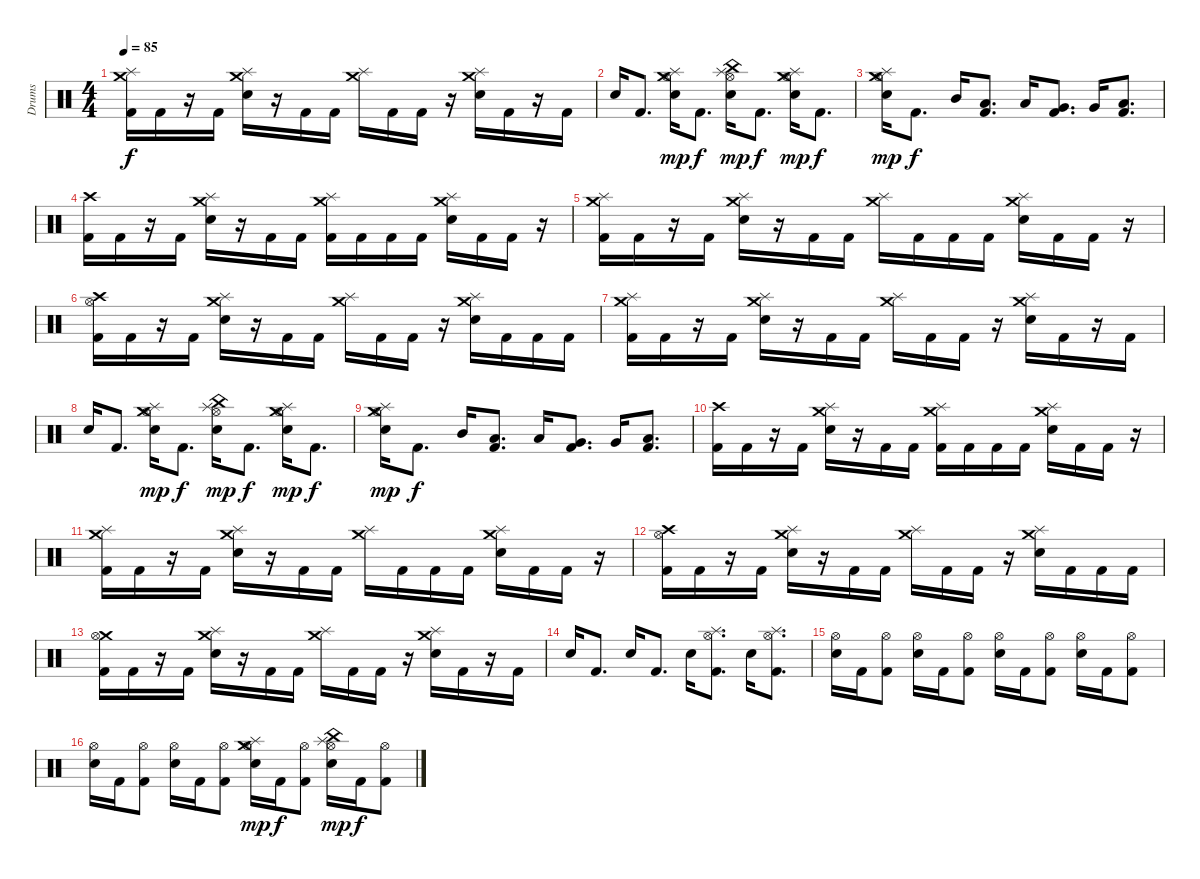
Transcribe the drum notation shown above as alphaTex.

\track ("Drums" "Drums") {instrument percussion}
\staff {score}
\articulation defaults
\ts (4 4)
\tempo 85
\clef neutral
\ks c
("Crash medium (hit)" "Splash (hit)" "Kick (hit) 2").16{dy f} "Kick (hit) 2".16 r.16 "Kick (hit) 2".16 ("Crash medium (hit)" "Splash (hit)" "Electric Snare (hit)").16 r.16 "Kick (hit) 2".16 "Kick (hit) 2".16 ("Crash medium (hit)" "Splash (hit)").16 "Kick (hit) 2".16 "Kick (hit) 2".16 r.16 ("Crash medium (hit)" "Splash (hit)" "Electric Snare (hit)").16 "Kick (hit) 2".16 r.16 "Kick (hit) 2".16 |
"Electric Snare (hit)".16 "Kick (hit) 2".8{d} ("Crash medium (hit)" "Splash (hit)" "Hi-Hat (open)" "Electric Snare (hit)").16{dy mp} "Kick (hit) 2".8{d dy f} ("China (hit)" "Splash (hit)" "Hi-Hat (open)" "Electric Snare (hit)").16{dy mp} "Kick (hit) 2".8{d dy f} ("Crash medium (hit)" "Splash (hit)" "Hi-Hat (open)" "Electric Snare (hit)").16{dy mp} "Kick (hit) 2".8{d dy f} |
("Hi-Hat (open)" "Crash medium (hit)" "Splash (hit)" "Electric Snare (hit)").16{dy mp} "Kick (hit) 2".8{d dy f} "Mid Tom (hit)".16 ("Kick (hit) 2" "Low Tom (hit)").8{d} "Low Tom (hit)".16 ("Kick (hit) 2" "Very Low Tom (hit)").8{d} "Very Low Tom (hit)".16 ("Kick (hit) 2" "Low Floor Tom (hit)").8{d} |
("Crash high (hit)" "Kick (hit) 2").16 "Kick (hit) 2".16 r.16 "Kick (hit) 2".16 ("Crash medium (hit)" "Splash (hit)" "Electric Snare (hit)").16 r.16 "Kick (hit) 2".16 "Kick (hit) 2".16 ("Crash medium (hit)" "Splash (hit)" "Kick (hit) 2").16 "Kick (hit) 2".16 "Kick (hit) 2".16 "Kick (hit) 2".16 ("Crash medium (hit)" "Splash (hit)" "Electric Snare (hit)").16 "Kick (hit) 2".16 "Kick (hit) 2".16 r.16 |
("Crash medium (hit)" "Splash (hit)" "Kick (hit) 2").16 "Kick (hit) 2".16 r.16 "Kick (hit) 2".16 ("Crash medium (hit)" "Splash (hit)" "Electric Snare (hit)").16 r.16 "Kick (hit) 2".16 "Kick (hit) 2".16 ("Crash medium (hit)" "Splash (hit)").16 "Kick (hit) 2".16 "Kick (hit) 2".16 "Kick (hit) 2".16 ("Crash medium (hit)" "Splash (hit)" "Electric Snare (hit)").16 "Kick (hit) 2".16 "Kick (hit) 2".16 r.16 |
("Hi-Hat (open)" "Crash high (hit)" "Kick (hit) 2").16 "Kick (hit) 2".16 r.16 "Kick (hit) 2".16 ("Crash medium (hit)" "Splash (hit)" "Electric Snare (hit)").16 r.16 "Kick (hit) 2".16 "Kick (hit) 2".16 ("Crash medium (hit)" "Splash (hit)").16 "Kick (hit) 2".16 "Kick (hit) 2".16 r.16 ("Crash medium (hit)" "Splash (hit)" "Electric Snare (hit)").16 "Kick (hit) 2".16 "Kick (hit) 2".16 "Kick (hit) 2".16 |
("Crash medium (hit)" "Splash (hit)" "Kick (hit) 2").16 "Kick (hit) 2".16 r.16 "Kick (hit) 2".16 ("Crash medium (hit)" "Splash (hit)" "Electric Snare (hit)").16 r.16 "Kick (hit) 2".16 "Kick (hit) 2".16 ("Crash medium (hit)" "Splash (hit)").16 "Kick (hit) 2".16 "Kick (hit) 2".16 r.16 ("Crash medium (hit)" "Splash (hit)" "Electric Snare (hit)").16 "Kick (hit) 2".16 r.16 "Kick (hit) 2".16 |
"Electric Snare (hit)".16 "Kick (hit) 2".8{d} ("Crash medium (hit)" "Splash (hit)" "Hi-Hat (open)" "Electric Snare (hit)").16{dy mp} "Kick (hit) 2".8{d dy f} ("China (hit)" "Splash (hit)" "Hi-Hat (open)" "Electric Snare (hit)").16{dy mp} "Kick (hit) 2".8{d dy f} ("Crash medium (hit)" "Splash (hit)" "Hi-Hat (open)" "Electric Snare (hit)").16{dy mp} "Kick (hit) 2".8{d dy f} |
("Hi-Hat (open)" "Crash medium (hit)" "Splash (hit)" "Electric Snare (hit)").16{dy mp} "Kick (hit) 2".8{d dy f} "Mid Tom (hit)".16 ("Kick (hit) 2" "Low Tom (hit)").8{d} "Low Tom (hit)".16 ("Kick (hit) 2" "Very Low Tom (hit)").8{d} "Very Low Tom (hit)".16 ("Kick (hit) 2" "Low Floor Tom (hit)").8{d} |
("Crash high (hit)" "Kick (hit) 2").16 "Kick (hit) 2".16 r.16 "Kick (hit) 2".16 ("Crash medium (hit)" "Splash (hit)" "Electric Snare (hit)").16 r.16 "Kick (hit) 2".16 "Kick (hit) 2".16 ("Crash medium (hit)" "Splash (hit)" "Kick (hit) 2").16 "Kick (hit) 2".16 "Kick (hit) 2".16 "Kick (hit) 2".16 ("Crash medium (hit)" "Splash (hit)" "Electric Snare (hit)").16 "Kick (hit) 2".16 "Kick (hit) 2".16 r.16 |
("Crash medium (hit)" "Splash (hit)" "Kick (hit) 2").16 "Kick (hit) 2".16 r.16 "Kick (hit) 2".16 ("Crash medium (hit)" "Splash (hit)" "Electric Snare (hit)").16 r.16 "Kick (hit) 2".16 "Kick (hit) 2".16 ("Crash medium (hit)" "Splash (hit)").16 "Kick (hit) 2".16 "Kick (hit) 2".16 "Kick (hit) 2".16 ("Crash medium (hit)" "Splash (hit)" "Electric Snare (hit)").16 "Kick (hit) 2".16 "Kick (hit) 2".16 r.16 |
("Hi-Hat (open)" "Crash high (hit)" "Kick (hit) 2").16 "Kick (hit) 2".16 r.16 "Kick (hit) 2".16 ("Crash medium (hit)" "Splash (hit)" "Electric Snare (hit)").16 r.16 "Kick (hit) 2".16 "Kick (hit) 2".16 ("Crash medium (hit)" "Splash (hit)").16 "Kick (hit) 2".16 "Kick (hit) 2".16 r.16 ("Crash medium (hit)" "Splash (hit)" "Electric Snare (hit)").16 "Kick (hit) 2".16 "Kick (hit) 2".16 "Kick (hit) 2".16 |
("Crash medium (hit)" "Hi-Hat (open)" "Kick (hit) 2").16 "Kick (hit) 2".16 r.16 "Kick (hit) 2".16 ("Crash medium (hit)" "Splash (hit)" "Electric Snare (hit)").16 r.16 "Kick (hit) 2".16 "Kick (hit) 2".16 ("Crash medium (hit)" "Splash (hit)").16 "Kick (hit) 2".16 "Kick (hit) 2".16 r.16 ("Crash medium (hit)" "Splash (hit)" "Electric Snare (hit)").16 "Kick (hit) 2".16 r.16 "Kick (hit) 2".16 |
"Electric Snare (hit)".16 "Kick (hit) 2".8{d} "Electric Snare (hit)".16 "Kick (hit) 2".8{d} "Electric Snare (hit)".16 ("Hi-Hat (open)" "Splash (hit)" "Kick (hit) 2").8{d} "Electric Snare (hit)".16 ("Hi-Hat (open)" "Splash (hit)" "Kick (hit) 2").8{d} |
("Hi-Hat (open)" "Electric Snare (hit)").16 "Kick (hit) 2".16 ("Hi-Hat (open)" "Kick (hit) 2").8 ("Hi-Hat (open)" "Electric Snare (hit)").16 "Kick (hit) 2".16 ("Hi-Hat (open)" "Kick (hit) 2").8 ("Hi-Hat (open)" "Electric Snare (hit)").16 "Kick (hit) 2".16 ("Hi-Hat (open)" "Kick (hit) 2").8 ("Hi-Hat (open)" "Electric Snare (hit)").16 "Kick (hit) 2".16 ("Hi-Hat (open)" "Kick (hit) 2").8 |
("Hi-Hat (open)" "Electric Snare (hit)").16 "Kick (hit) 2".16 ("Hi-Hat (open)" "Kick (hit) 2").8 ("Hi-Hat (open)" "Electric Snare (hit)").16 "Kick (hit) 2".16 ("Hi-Hat (open)" "Kick (hit) 2").8 ("Splash (hit)" "Hi-Hat (open)" "Crash medium (hit)" "Electric Snare (hit)").16{dy mp} "Kick (hit) 2".16{dy f} ("Hi-Hat (open)" "Kick (hit) 2").8 ("Splash (hit)" "Hi-Hat (open)" "China (hit)" "Electric Snare (hit)").16{dy mp} "Kick (hit) 2".16{dy f} ("Hi-Hat (open)" "Kick (hit) 2").8
